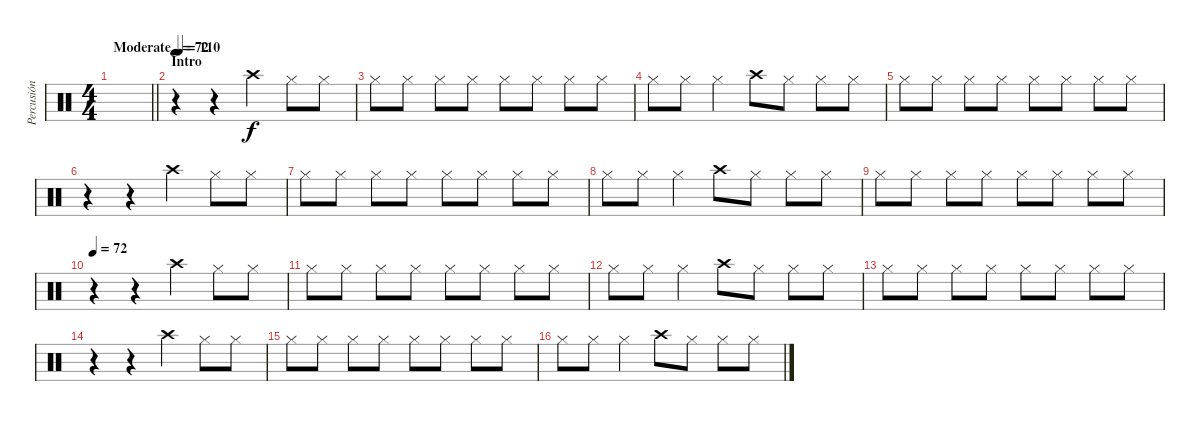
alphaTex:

\track ("Percusión" "Percusión") {instrument percussion}
\staff {score}
\articulation defaults
\ts (4 4)
\tempo (110 "Moderate")
\clef neutral
\barLineRight lightlight
\ks c
|
\section ("" "Intro")
\tempo 72
r.4 r.4 "Crash high (hit)".4 "Hi-Hat (closed)".8 "Hi-Hat (closed)".8 |
"Hi-Hat (closed)".8 "Hi-Hat (closed)".8 "Hi-Hat (closed)".8 "Hi-Hat (closed)".8 "Hi-Hat (closed)".8 "Hi-Hat (closed)".8 "Hi-Hat (closed)".8 "Hi-Hat (closed)".8 |
"Hi-Hat (closed)".8 "Hi-Hat (closed)".8 "Hi-Hat (closed)".4 "Crash high (hit)".8 "Hi-Hat (closed)".8 "Hi-Hat (closed)".8 "Hi-Hat (closed)".8 |
"Hi-Hat (closed)".8 "Hi-Hat (closed)".8 "Hi-Hat (closed)".8 "Hi-Hat (closed)".8 "Hi-Hat (closed)".8 "Hi-Hat (closed)".8 "Hi-Hat (closed)".8 "Hi-Hat (closed)".8 |
r.4 r.4 "Crash high (hit)".4 "Hi-Hat (closed)".8 "Hi-Hat (closed)".8 |
"Hi-Hat (closed)".8 "Hi-Hat (closed)".8 "Hi-Hat (closed)".8 "Hi-Hat (closed)".8 "Hi-Hat (closed)".8 "Hi-Hat (closed)".8 "Hi-Hat (closed)".8 "Hi-Hat (closed)".8 |
"Hi-Hat (closed)".8 "Hi-Hat (closed)".8 "Hi-Hat (closed)".4 "Crash high (hit)".8 "Hi-Hat (closed)".8 "Hi-Hat (closed)".8 "Hi-Hat (closed)".8 |
"Hi-Hat (closed)".8 "Hi-Hat (closed)".8 "Hi-Hat (closed)".8 "Hi-Hat (closed)".8 "Hi-Hat (closed)".8 "Hi-Hat (closed)".8 "Hi-Hat (closed)".8 "Hi-Hat (closed)".8 |
\tempo 72
r.4 r.4 "Crash high (hit)".4 "Hi-Hat (closed)".8 "Hi-Hat (closed)".8 |
"Hi-Hat (closed)".8 "Hi-Hat (closed)".8 "Hi-Hat (closed)".8 "Hi-Hat (closed)".8 "Hi-Hat (closed)".8 "Hi-Hat (closed)".8 "Hi-Hat (closed)".8 "Hi-Hat (closed)".8 |
"Hi-Hat (closed)".8 "Hi-Hat (closed)".8 "Hi-Hat (closed)".4 "Crash high (hit)".8 "Hi-Hat (closed)".8 "Hi-Hat (closed)".8 "Hi-Hat (closed)".8 |
"Hi-Hat (closed)".8 "Hi-Hat (closed)".8 "Hi-Hat (closed)".8 "Hi-Hat (closed)".8 "Hi-Hat (closed)".8 "Hi-Hat (closed)".8 "Hi-Hat (closed)".8 "Hi-Hat (closed)".8 |
r.4 r.4 "Crash high (hit)".4 "Hi-Hat (closed)".8 "Hi-Hat (closed)".8 |
"Hi-Hat (closed)".8 "Hi-Hat (closed)".8 "Hi-Hat (closed)".8 "Hi-Hat (closed)".8 "Hi-Hat (closed)".8 "Hi-Hat (closed)".8 "Hi-Hat (closed)".8 "Hi-Hat (closed)".8 |
"Hi-Hat (closed)".8 "Hi-Hat (closed)".8 "Hi-Hat (closed)".4 "Crash high (hit)".8 "Hi-Hat (closed)".8 "Hi-Hat (closed)".8 "Hi-Hat (closed)".8
